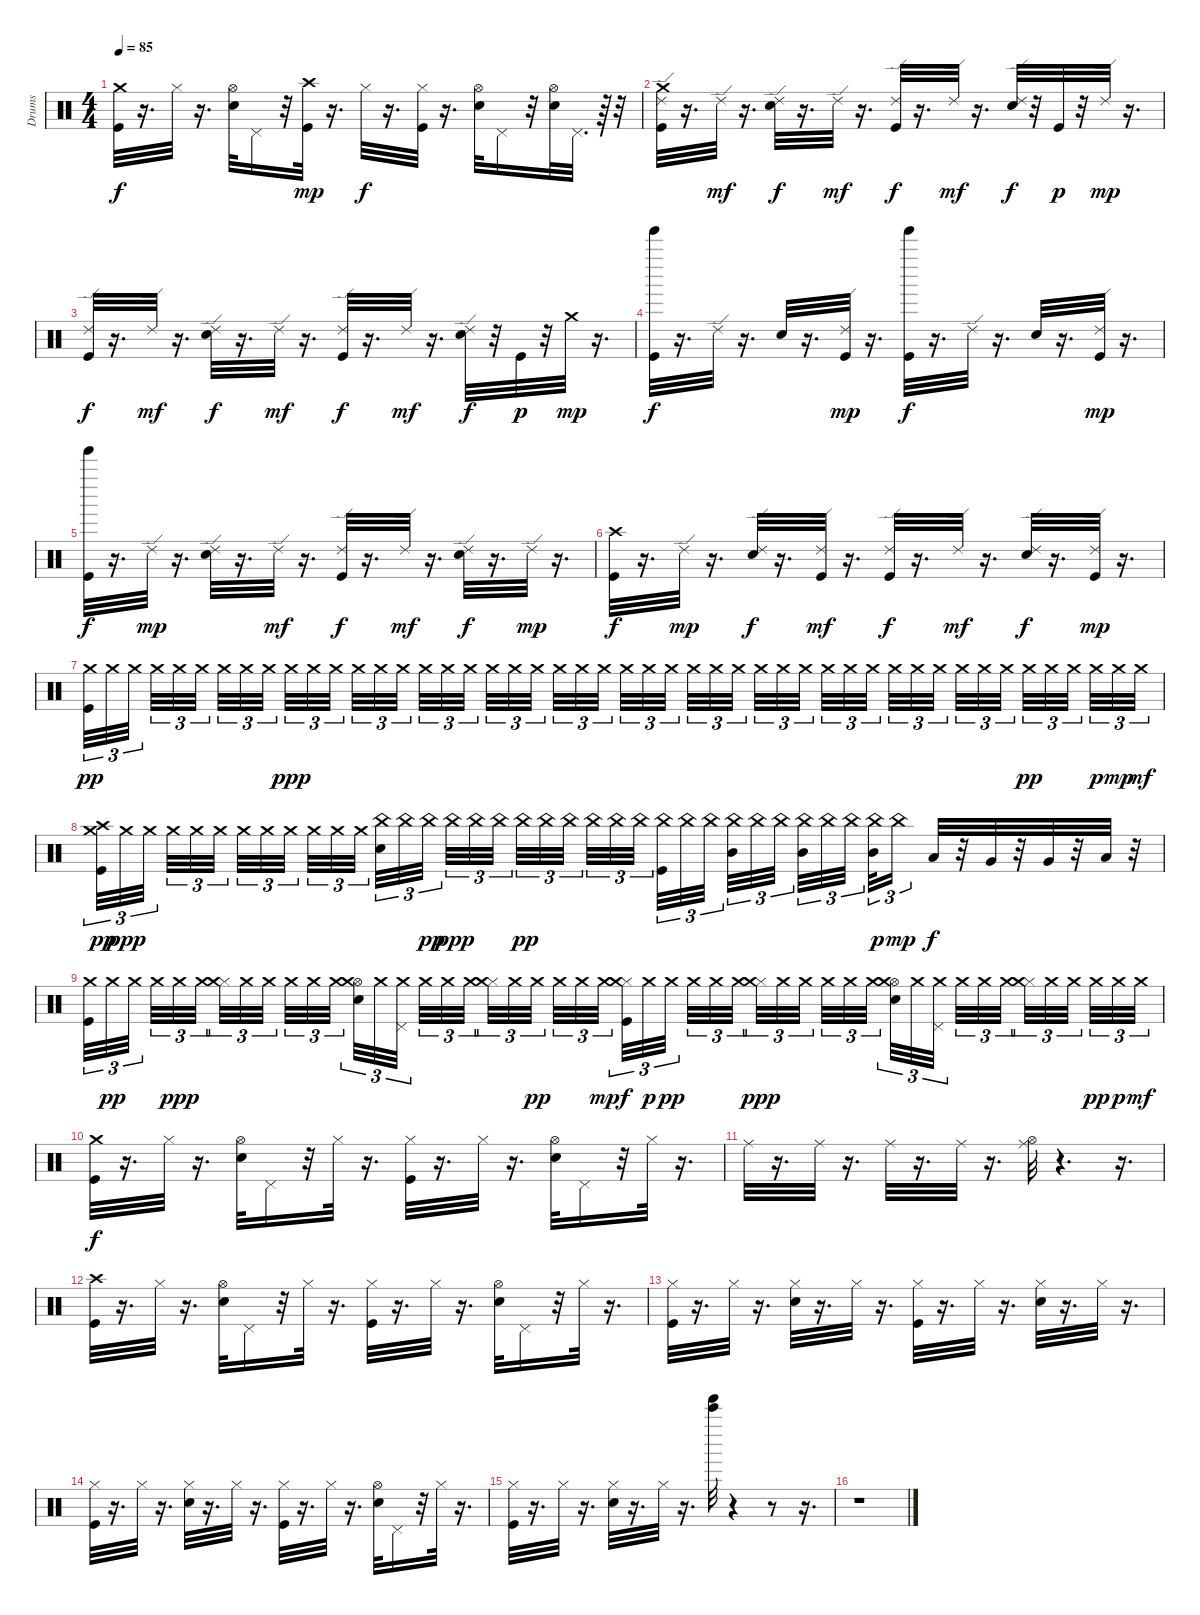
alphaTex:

\track ("Drums" "Drums") {instrument percussion}
\staff {score}
\articulation defaults
\ts (4 4)
\tempo 85
\clef neutral
\ks c
("Crash medium (hit)" "Kick (hit)").32{dy f} r.16{d} "Hi-Hat (closed)".32 r.16{d} ("Hi-Hat (open)" "Snare (hit) 2").32 "Pedal Hi-Hat (hit)".16 r.32 ("Kick (hit)" "Crash high (hit)").32{dy mp} r.16{d} "Hi-Hat (closed)".32{dy f} r.16{d} ("Hi-Hat (closed)" "Kick (hit)").32 r.16{d} ("Hi-Hat (open)" "Snare (hit) 2").32 "Pedal Hi-Hat (hit)".16 r.32 ("Snare (hit) 2" "Hi-Hat (open)").32 "Pedal Hi-Hat (hit)".32{d} r.64 r.32 |
("Crash medium (hit)" "Ride (edge) 2" "Kick (hit)").32 r.16{d} "Ride (edge) 2".32{dy mf} r.16{d} ("Ride (edge) 2" "Snare (hit) 2").32{dy f} r.16{d} "Ride (edge) 2".32{dy mf} r.16{d} ("Ride (edge) 2" "Kick (hit)").32{dy f} r.16{d} "Ride (edge) 2".32{dy mf} r.16{d} ("Ride (edge) 2" "Snare (hit) 2").32{dy f} r.32 "Kick (hit)".32{dy p} r.32 "Ride (edge) 2".32{dy mp} r.16{d} |
("Ride (edge) 2" "Kick (hit)").32{dy f} r.16{d} "Ride (edge) 2".32{dy mf} r.16{d} ("Ride (edge) 2" "Snare (hit) 2").32{dy f} r.16{d} "Ride (edge) 2".32{dy mf} r.16{d} ("Ride (edge) 2" "Kick (hit)").32{dy f} r.16{d} "Ride (edge) 2".32{dy mf} r.16{d} ("Ride (edge) 2" "Snare (hit) 2").32{dy f} r.32 "Kick (hit)".32{dy p} r.32 "Crash medium (hit)".32{dy mp} r.16{d} |
("Kick (hit)" "Tinkle Bell (hit)").32{dy f} r.16{d} "Ride (edge) 2".32 r.16{d} "Snare (hit) 2".32 r.16{d} ("Ride (edge) 2" "Kick (hit)").32{dy mp} r.16{d} ("Tinkle Bell (hit)" "Kick (hit)").32{dy f} r.16{d} "Ride (edge) 2".32 r.16{d} "Snare (hit) 2".32 r.16{d} ("Ride (edge) 2" "Kick (hit)").32{dy mp} r.16{d} |
("Tinkle Bell (hit)" "Kick (hit)").32{dy f} r.16{d} "Ride (edge) 2".32{dy mp} r.16{d} ("Ride (edge) 2" "Snare (hit) 2").32 r.16{d} "Ride (edge) 2".32{dy mf} r.16{d} ("Kick (hit)" "Ride (edge) 2").32{dy f} r.16{d} "Ride (edge) 2".32{dy mf} r.16{d} ("Snare (hit) 2" "Ride (edge) 2").32{dy f} r.16{d} "Ride (edge) 2".32{dy mp} r.16{d} |
("Crash high (hit)" "Kick (hit)").32{dy f} r.16{d} "Ride (edge) 2".32{dy mp} r.16{d} ("Snare (hit) 2" "Ride (edge) 2").32{dy f} r.16{d} ("Kick (hit)" "Ride (edge) 2").32{dy mf} r.16{d} ("Kick (hit)" "Ride (edge) 2").32{dy f} r.16{d} "Ride (edge) 2".32{dy mf} r.16{d} ("Snare (hit) 2" "Ride (edge) 2").32{dy f} r.16{d} ("Kick (hit)" "Ride (edge) 2").32{dy mp} r.16{d} |
("Kick (hit)" "Crash medium (hit)").32{tu (3 2) dy pp} "Crash medium (hit)".32{tu (3 2)} "Crash medium (hit)".32{tu (3 2) beam splitsecondary} "Crash medium (hit)".32{tu (3 2)} "Crash medium (hit)".32{tu (3 2)} "Crash medium (hit)".32{tu (3 2) beam splitsecondary} "Crash medium (hit)".32{tu (3 2)} "Crash medium (hit)".32{tu (3 2)} "Crash medium (hit)".32{tu (3 2) beam splitsecondary} "Crash medium (hit)".32{tu (3 2) dy ppp} "Crash medium (hit)".32{tu (3 2)} "Crash medium (hit)".32{tu (3 2)} "Crash medium (hit)".32{tu (3 2)} "Crash medium (hit)".32{tu (3 2)} "Crash medium (hit)".32{tu (3 2) beam splitsecondary} "Crash medium (hit)".32{tu (3 2)} "Crash medium (hit)".32{tu (3 2)} "Crash medium (hit)".32{tu (3 2) beam splitsecondary} "Crash medium (hit)".32{tu (3 2)} "Crash medium (hit)".32{tu (3 2)} "Crash medium (hit)".32{tu (3 2) beam splitsecondary} "Crash medium (hit)".32{tu (3 2)} "Crash medium (hit)".32{tu (3 2)} "Crash medium (hit)".32{tu (3 2)} "Crash medium (hit)".32{tu (3 2)} "Crash medium (hit)".32{tu (3 2)} "Crash medium (hit)".32{tu (3 2) beam splitsecondary} "Crash medium (hit)".32{tu (3 2)} "Crash medium (hit)".32{tu (3 2)} "Crash medium (hit)".32{tu (3 2) beam splitsecondary} "Crash medium (hit)".32{tu (3 2)} "Crash medium (hit)".32{tu (3 2)} "Crash medium (hit)".32{tu (3 2) beam splitsecondary} "Crash medium (hit)".32{tu (3 2)} "Crash medium (hit)".32{tu (3 2)} "Crash medium (hit)".32{tu (3 2)} "Crash medium (hit)".32{tu (3 2)} "Crash medium (hit)".32{tu (3 2)} "Crash medium (hit)".32{tu (3 2) beam splitsecondary} "Crash medium (hit)".32{tu (3 2)} "Crash medium (hit)".32{tu (3 2)} "Crash medium (hit)".32{tu (3 2) beam splitsecondary} "Crash medium (hit)".32{tu (3 2) dy pp} "Crash medium (hit)".32{tu (3 2)} "Crash medium (hit)".32{tu (3 2) beam splitsecondary} "Crash medium (hit)".32{tu (3 2) dy p} "Crash medium (hit)".32{tu (3 2) dy mp} "Crash medium (hit)".32{tu (3 2) dy mf} |
("Crash high (hit)" "Kick (hit)" "Crash medium (hit)").32{tu (3 2) dy pp} "Crash medium (hit)".32{tu (3 2) dy ppp} "Crash medium (hit)".32{tu (3 2) beam splitsecondary} "Crash medium (hit)".32{tu (3 2)} "Crash medium (hit)".32{tu (3 2)} "Crash medium (hit)".32{tu (3 2) beam splitsecondary} "Crash medium (hit)".32{tu (3 2)} "Crash medium (hit)".32{tu (3 2)} "Crash medium (hit)".32{tu (3 2) beam splitsecondary} "Crash medium (hit)".32{tu (3 2)} "Crash medium (hit)".32{tu (3 2)} "Crash medium (hit)".32{tu (3 2)} ("Snare (hit) 2" "China (hit)").32{tu (3 2)} "China (hit)".32{tu (3 2)} "China (hit)".32{tu (3 2) dy pp beam splitsecondary} "China (hit)".32{tu (3 2) dy ppp} "China (hit)".32{tu (3 2)} "China (hit)".32{tu (3 2) beam splitsecondary} "China (hit)".32{tu (3 2) dy pp} "China (hit)".32{tu (3 2)} "China (hit)".32{tu (3 2) beam splitsecondary} "China (hit)".32{tu (3 2)} "China (hit)".32{tu (3 2)} "China (hit)".32{tu (3 2)} ("Kick (hit)" "China (hit)").32{tu (3 2)} "China (hit)".32{tu (3 2)} "China (hit)".32{tu (3 2) beam splitsecondary} ("China (hit)" "Mid Tom (hit)").32{tu (3 2)} "China (hit)".32{tu (3 2)} "China (hit)".32{tu (3 2) beam splitsecondary} ("Mid Tom (hit)" "China (hit)").32{tu (3 2)} "China (hit)".32{tu (3 2)} "China (hit)".32{tu (3 2) beam splitsecondary} ("Mid Tom (hit)" "China (hit)").32{tu (3 2) dy p} "China (hit)".16{tu (3 2) dy mp} "Low Tom (hit)".32{dy f} r.32 "Very Low Tom (hit)".32 r.32 "Very Low Tom (hit)".32 r.32 "Low Floor Tom (hit)".32 r.32 |
("Kick (hit)" "Crash medium (hit)").32{tu (3 2)} "Crash medium (hit)".32{tu (3 2) dy pp} "Crash medium (hit)".32{tu (3 2) beam splitsecondary} "Crash medium (hit)".32{tu (3 2)} "Crash medium (hit)".32{tu (3 2) dy ppp} "Crash medium (hit)".32{tu (3 2) beam splitsecondary} ("Hi-Hat (closed)" "Crash medium (hit)").32{tu (3 2)} "Crash medium (hit)".32{tu (3 2)} "Crash medium (hit)".32{tu (3 2) beam splitsecondary} "Crash medium (hit)".32{tu (3 2)} "Crash medium (hit)".32{tu (3 2)} "Crash medium (hit)".32{tu (3 2)} ("Hi-Hat (open)" "Snare (hit) 2" "Crash medium (hit)").32{tu (3 2)} "Crash medium (hit)".32{tu (3 2)} ("Pedal Hi-Hat (hit)" "Crash medium (hit)").32{tu (3 2) beam splitsecondary} "Crash medium (hit)".32{tu (3 2)} "Crash medium (hit)".32{tu (3 2)} "Crash medium (hit)".32{tu (3 2) beam splitsecondary} ("Hi-Hat (closed)" "Crash medium (hit)").32{tu (3 2)} "Crash medium (hit)".32{tu (3 2)} "Crash medium (hit)".32{tu (3 2) dy pp beam splitsecondary} "Crash medium (hit)".32{tu (3 2)} "Crash medium (hit)".32{tu (3 2)} "Crash medium (hit)".32{tu (3 2) dy mp} ("Hi-Hat (closed)" "Kick (hit)" "Crash medium (hit)").32{tu (3 2) dy f} "Crash medium (hit)".32{tu (3 2) dy p} "Crash medium (hit)".32{tu (3 2) dy pp beam splitsecondary} "Crash medium (hit)".32{tu (3 2)} "Crash medium (hit)".32{tu (3 2)} "Crash medium (hit)".32{tu (3 2) beam splitsecondary} ("Hi-Hat (closed)" "Crash medium (hit)").32{tu (3 2) dy ppp} "Crash medium (hit)".32{tu (3 2)} "Crash medium (hit)".32{tu (3 2) beam splitsecondary} "Crash medium (hit)".32{tu (3 2)} "Crash medium (hit)".32{tu (3 2)} "Crash medium (hit)".32{tu (3 2)} ("Hi-Hat (open)" "Snare (hit) 2" "Crash medium (hit)").32{tu (3 2)} "Crash medium (hit)".32{tu (3 2)} ("Pedal Hi-Hat (hit)" "Crash medium (hit)").32{tu (3 2) beam splitsecondary} "Crash medium (hit)".32{tu (3 2)} "Crash medium (hit)".32{tu (3 2)} "Crash medium (hit)".32{tu (3 2) beam splitsecondary} ("Hi-Hat (closed)" "Crash medium (hit)").32{tu (3 2)} "Crash medium (hit)".32{tu (3 2)} "Crash medium (hit)".32{tu (3 2) beam splitsecondary} "Crash medium (hit)".32{tu (3 2) dy pp} "Crash medium (hit)".32{tu (3 2) dy p} "Crash medium (hit)".32{tu (3 2) dy mf} |
("Kick (hit)" "Crash medium (hit)").32{dy f} r.16{d} "Hi-Hat (closed)".32 r.16{d} ("Hi-Hat (open)" "Snare (hit) 2").32 "Pedal Hi-Hat (hit)".16 r.32 "Hi-Hat (closed)".32 r.16{d} ("Hi-Hat (closed)" "Kick (hit)").32 r.16{d} "Hi-Hat (closed)".32 r.16{d} ("Hi-Hat (open)" "Snare (hit) 2").32 "Pedal Hi-Hat (hit)".16 r.32 "Hi-Hat (closed)".32 r.16{d} |
"Ride (middle)".32 r.16{d} "Ride (middle)".32 r.16{d} "Ride (middle)".32 r.16{d} "Ride (middle)".32 r.16{d} ("Hi-Hat (open)" "Ride (middle)").32 r.4{d} r.16{d} |
("Kick (hit)" "Crash high (hit)").32 r.16{d} "Hi-Hat (closed)".32 r.16{d} ("Hi-Hat (open)" "Snare (hit) 2").32 "Pedal Hi-Hat (hit)".16 r.32 "Hi-Hat (closed)".32 r.16{d} ("Hi-Hat (closed)" "Kick (hit)").32 r.16{d} "Hi-Hat (closed)".32 r.16{d} ("Hi-Hat (open)" "Snare (hit) 2").32 "Pedal Hi-Hat (hit)".16 r.32 "Hi-Hat (closed)".32 r.16{d} |
("Hi-Hat (closed)" "Kick (hit)").32 r.16{d} "Hi-Hat (closed)".32 r.16{d} ("Hi-Hat (closed)" "Snare (hit) 2").32 r.16{d} "Hi-Hat (closed)".32 r.16{d} ("Hi-Hat (closed)" "Kick (hit)").32 r.16{d} "Hi-Hat (closed)".32 r.16{d} ("Hi-Hat (closed)" "Snare (hit) 2").32 r.16{d} "Hi-Hat (closed)".32 r.16{d} |
("Hi-Hat (closed)" "Kick (hit)").32 r.16{d} "Hi-Hat (closed)".32 r.16{d} ("Hi-Hat (closed)" "Snare (hit) 2").32 r.16{d} "Hi-Hat (closed)".32 r.16{d} ("Hi-Hat (closed)" "Kick (hit)").32 r.16{d} "Hi-Hat (closed)".32 r.16{d} ("Hi-Hat (open)" "Snare (hit) 2").32 "Pedal Hi-Hat (hit)".16 r.32 "Hi-Hat (closed)".32 r.16{d} |
("Hi-Hat (closed)" "Kick (hit)").32 r.16{d} "Hi-Hat (closed)".32 r.16{d} ("Hi-Hat (closed)" "Snare (hit) 2").32 r.16{d} "Hi-Hat (closed)".32 r.16{d} ("Bell Tree (hit)" "Tinkle Bell (hit)").32 r.4 r.8 r.16{d} |
r.1
